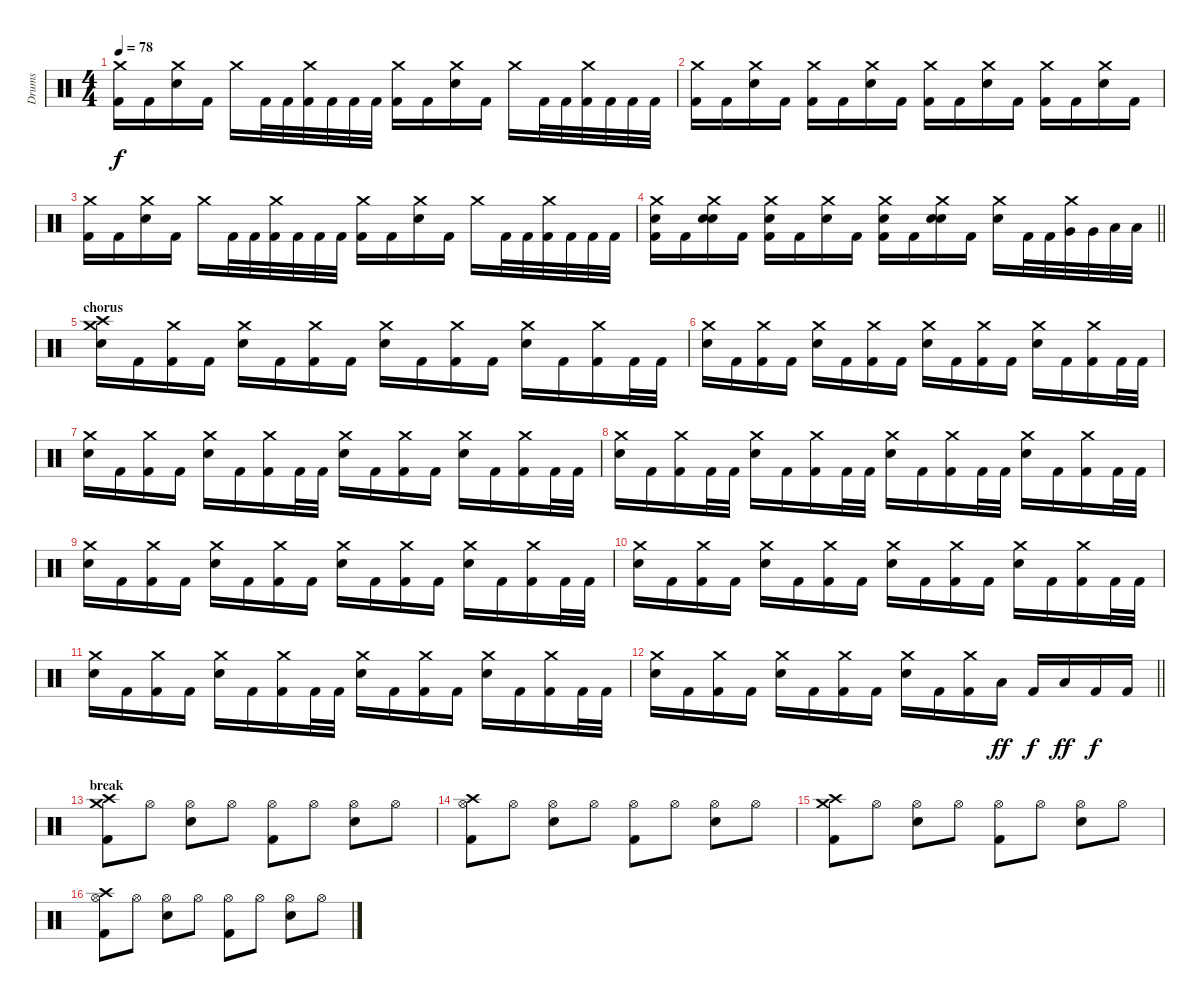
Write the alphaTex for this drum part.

\track ("Drums" "Drums") {instrument percussion}
\staff {score}
\articulation defaults
\ts (4 4)
\tempo 78
\clef neutral
\ks c
("Kick (hit) 2" "Crash medium (hit)").16{dy f} "Kick (hit) 2".16 ("Electric Snare (hit)" "Crash medium (hit)").16 "Kick (hit) 2".16 "Crash medium (hit)".16 "Kick (hit) 2".32 "Kick (hit) 2".32 ("Kick (hit) 2" "Crash medium (hit)").32 "Kick (hit) 2".32 "Kick (hit) 2".32 "Kick (hit) 2".32 ("Kick (hit) 2" "Crash medium (hit)").16 "Kick (hit) 2".16 ("Electric Snare (hit)" "Crash medium (hit)").16 "Kick (hit) 2".16 "Crash medium (hit)".16 "Kick (hit) 2".32 "Kick (hit) 2".32 ("Kick (hit) 2" "Crash medium (hit)").32 "Kick (hit) 2".32 "Kick (hit) 2".32 "Kick (hit) 2".32 |
("Kick (hit) 2" "Crash medium (hit)").16 "Kick (hit) 2".16 ("Electric Snare (hit)" "Crash medium (hit)").16 "Kick (hit) 2".16 ("Kick (hit) 2" "Crash medium (hit)").16 "Kick (hit) 2".16 ("Electric Snare (hit)" "Crash medium (hit)").16 "Kick (hit) 2".16 ("Kick (hit) 2" "Crash medium (hit)").16 "Kick (hit) 2".16 ("Electric Snare (hit)" "Crash medium (hit)").16 "Kick (hit) 2".16 ("Kick (hit) 2" "Crash medium (hit)").16 "Kick (hit) 2".16 ("Electric Snare (hit)" "Crash medium (hit)").16 "Kick (hit) 2".16 |
("Kick (hit) 2" "Crash medium (hit)").16 "Kick (hit) 2".16 ("Electric Snare (hit)" "Crash medium (hit)").16 "Kick (hit) 2".16 "Crash medium (hit)".16 "Kick (hit) 2".32 "Kick (hit) 2".32 ("Kick (hit) 2" "Crash medium (hit)").32 "Kick (hit) 2".32 "Kick (hit) 2".32 "Kick (hit) 2".32 ("Kick (hit) 2" "Crash medium (hit)").16 "Kick (hit) 2".16 ("Electric Snare (hit)" "Crash medium (hit)").16 "Kick (hit) 2".16 "Crash medium (hit)".16 "Kick (hit) 2".32 "Kick (hit) 2".32 ("Kick (hit) 2" "Crash medium (hit)").32 "Kick (hit) 2".32 "Kick (hit) 2".32 "Kick (hit) 2".32 |
\barLineRight lightlight
("Electric Snare (hit)" "Kick (hit) 2" "Crash medium (hit)").16 "Kick (hit) 2".16 ("Electric Snare (hit)" "Electric Snare (hit)" "Crash medium (hit)").16 "Kick (hit) 2".16 ("Electric Snare (hit)" "Kick (hit) 2" "Crash medium (hit)").16 "Kick (hit) 2".16 ("Electric Snare (hit)" "Crash medium (hit)").16 "Kick (hit) 2".16 ("Electric Snare (hit)" "Kick (hit) 2" "Crash medium (hit)").16 "Kick (hit) 2".16 ("Electric Snare (hit)" "Electric Snare (hit)" "Crash medium (hit)").16 "Kick (hit) 2".16 ("Electric Snare (hit)" "Crash medium (hit)").16 "Kick (hit) 2".32 "Kick (hit) 2".32 ("Very Low Tom (hit)" "Crash medium (hit)").32 "Very Low Tom (hit)".32 "Low Floor Tom (hit)".32 "Low Floor Tom (hit)".32 |
\section ("" "chorus")
("Electric Snare (hit)" "Crash high (hit)" "Crash medium (hit)").16 "Kick (hit) 2".16 ("Kick (hit) 2" "Crash medium (hit)").16 "Kick (hit) 2".16 ("Electric Snare (hit)" "Crash medium (hit)").16 "Kick (hit) 2".16 ("Kick (hit) 2" "Crash medium (hit)").16 "Kick (hit) 2".16 ("Electric Snare (hit)" "Crash medium (hit)").16 "Kick (hit) 2".16 ("Kick (hit) 2" "Crash medium (hit)").16 "Kick (hit) 2".16 ("Electric Snare (hit)" "Crash medium (hit)").16 "Kick (hit) 2".16 ("Kick (hit) 2" "Crash medium (hit)").16 "Kick (hit) 2".32 "Kick (hit) 2".32 |
("Electric Snare (hit)" "Crash medium (hit)").16 "Kick (hit) 2".16 ("Kick (hit) 2" "Crash medium (hit)").16 "Kick (hit) 2".16 ("Electric Snare (hit)" "Crash medium (hit)").16 "Kick (hit) 2".16 ("Kick (hit) 2" "Crash medium (hit)").16 "Kick (hit) 2".16 ("Electric Snare (hit)" "Crash medium (hit)").16 "Kick (hit) 2".16 ("Kick (hit) 2" "Crash medium (hit)").16 "Kick (hit) 2".16 ("Electric Snare (hit)" "Crash medium (hit)").16 "Kick (hit) 2".16 ("Kick (hit) 2" "Crash medium (hit)").16 "Kick (hit) 2".32 "Kick (hit) 2".32 |
("Electric Snare (hit)" "Crash medium (hit)").16 "Kick (hit) 2".16 ("Kick (hit) 2" "Crash medium (hit)").16 "Kick (hit) 2".16 ("Electric Snare (hit)" "Crash medium (hit)").16 "Kick (hit) 2".16 ("Kick (hit) 2" "Crash medium (hit)").16 "Kick (hit) 2".32 "Kick (hit) 2".32 ("Electric Snare (hit)" "Crash medium (hit)").16 "Kick (hit) 2".16 ("Kick (hit) 2" "Crash medium (hit)").16 "Kick (hit) 2".16 ("Electric Snare (hit)" "Crash medium (hit)").16 "Kick (hit) 2".16 ("Kick (hit) 2" "Crash medium (hit)").16 "Kick (hit) 2".32 "Kick (hit) 2".32 |
("Electric Snare (hit)" "Crash medium (hit)").16 "Kick (hit) 2".16 ("Kick (hit) 2" "Crash medium (hit)").16 "Kick (hit) 2".32 "Kick (hit) 2".32 ("Electric Snare (hit)" "Crash medium (hit)").16 "Kick (hit) 2".16 ("Kick (hit) 2" "Crash medium (hit)").16 "Kick (hit) 2".32 "Kick (hit) 2".32 ("Electric Snare (hit)" "Crash medium (hit)").16 "Kick (hit) 2".16 ("Kick (hit) 2" "Crash medium (hit)").16 "Kick (hit) 2".32 "Kick (hit) 2".32 ("Electric Snare (hit)" "Crash medium (hit)").16 "Kick (hit) 2".16 ("Kick (hit) 2" "Crash medium (hit)").16 "Kick (hit) 2".32 "Kick (hit) 2".32 |
("Electric Snare (hit)" "Crash medium (hit)").16 "Kick (hit) 2".16 ("Kick (hit) 2" "Crash medium (hit)").16 "Kick (hit) 2".16 ("Electric Snare (hit)" "Crash medium (hit)").16 "Kick (hit) 2".16 ("Kick (hit) 2" "Crash medium (hit)").16 "Kick (hit) 2".16 ("Electric Snare (hit)" "Crash medium (hit)").16 "Kick (hit) 2".16 ("Kick (hit) 2" "Crash medium (hit)").16 "Kick (hit) 2".16 ("Electric Snare (hit)" "Crash medium (hit)").16 "Kick (hit) 2".16 ("Kick (hit) 2" "Crash medium (hit)").16 "Kick (hit) 2".32 "Kick (hit) 2".32 |
("Electric Snare (hit)" "Crash medium (hit)").16 "Kick (hit) 2".16 ("Kick (hit) 2" "Crash medium (hit)").16 "Kick (hit) 2".16 ("Electric Snare (hit)" "Crash medium (hit)").16 "Kick (hit) 2".16 ("Kick (hit) 2" "Crash medium (hit)").16 "Kick (hit) 2".16 ("Electric Snare (hit)" "Crash medium (hit)").16 "Kick (hit) 2".16 ("Kick (hit) 2" "Crash medium (hit)").16 "Kick (hit) 2".16 ("Electric Snare (hit)" "Crash medium (hit)").16 "Kick (hit) 2".16 ("Kick (hit) 2" "Crash medium (hit)").16 "Kick (hit) 2".32 "Kick (hit) 2".32 |
("Electric Snare (hit)" "Crash medium (hit)").16 "Kick (hit) 2".16 ("Kick (hit) 2" "Crash medium (hit)").16 "Kick (hit) 2".16 ("Electric Snare (hit)" "Crash medium (hit)").16 "Kick (hit) 2".16 ("Kick (hit) 2" "Crash medium (hit)").16 "Kick (hit) 2".32 "Kick (hit) 2".32 ("Electric Snare (hit)" "Crash medium (hit)").16 "Kick (hit) 2".16 ("Kick (hit) 2" "Crash medium (hit)").16 "Kick (hit) 2".16 ("Electric Snare (hit)" "Crash medium (hit)").16 "Kick (hit) 2".16 ("Kick (hit) 2" "Crash medium (hit)").16 "Kick (hit) 2".32 "Kick (hit) 2".32 |
\barLineRight lightlight
("Electric Snare (hit)" "Crash medium (hit)").16 "Kick (hit) 2".16 ("Kick (hit) 2" "Crash medium (hit)").16 "Kick (hit) 2".16 ("Electric Snare (hit)" "Crash medium (hit)").16 "Kick (hit) 2".16 ("Kick (hit) 2" "Crash medium (hit)").16 "Kick (hit) 2".16 ("Electric Snare (hit)" "Crash medium (hit)").16 "Kick (hit) 2".16 ("Kick (hit) 2" "Crash medium (hit)").16 "Low Tom (hit)".16{dy ff} "Kick (hit) 2".16{dy f} "Low Floor Tom (hit)".16{dy ff} "Kick (hit) 2".16{dy f} "Kick (hit) 2".16 |
\section ("" "break")
("Crash high (hit)" "Kick (hit) 2" "Crash medium (hit)").8 "Hi-Hat (open)".8 ("Electric Snare (hit)" "Hi-Hat (open)").8 "Hi-Hat (open)".8 ("Kick (hit) 2" "Hi-Hat (open)").8 "Hi-Hat (open)".8 ("Electric Snare (hit)" "Hi-Hat (open)").8 "Hi-Hat (open)".8 |
("Crash high (hit)" "Kick (hit) 2" "Hi-Hat (open)").8 "Hi-Hat (open)".8 ("Electric Snare (hit)" "Hi-Hat (open)").8 "Hi-Hat (open)".8 ("Kick (hit) 2" "Hi-Hat (open)").8 "Hi-Hat (open)".8 ("Electric Snare (hit)" "Hi-Hat (open)").8 "Hi-Hat (open)".8 |
("Crash high (hit)" "Kick (hit) 2" "Crash medium (hit)").8 "Hi-Hat (open)".8 ("Electric Snare (hit)" "Hi-Hat (open)").8 "Hi-Hat (open)".8 ("Kick (hit) 2" "Hi-Hat (open)").8 "Hi-Hat (open)".8 ("Electric Snare (hit)" "Hi-Hat (open)").8 "Hi-Hat (open)".8 |
("Crash high (hit)" "Kick (hit) 2" "Hi-Hat (open)").8 "Hi-Hat (open)".8 ("Electric Snare (hit)" "Hi-Hat (open)").8 "Hi-Hat (open)".8 ("Kick (hit) 2" "Hi-Hat (open)").8 "Hi-Hat (open)".8 ("Electric Snare (hit)" "Hi-Hat (open)").8 "Hi-Hat (open)".8
